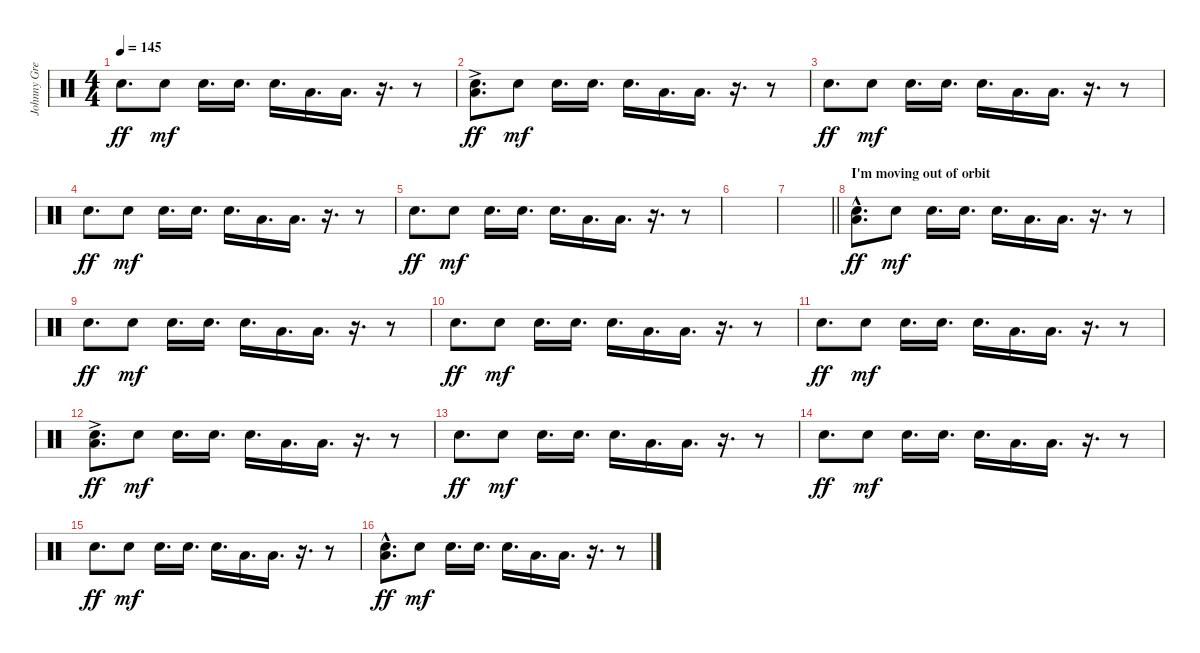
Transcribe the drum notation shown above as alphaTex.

\track ("Johnny Greenwood" "Johnny Gre") {instrument percussion}
\staff {score}
\articulation defaults
\ts (4 4)
\tempo 145
\clef neutral
\ks c "Snare (hit) 2".8{d dy ff} "Snare (hit) 2".8{dy mf} "Snare (hit) 2".16{d} "Snare (hit) 2".16{d} "Snare (hit) 2".16{d} "Low Floor Tom (hit)".16{d} "Low Floor Tom (hit)".16{d}
r.16{d} r.8 |
("Snare (hit) 2" "Low Floor Tom (hit)"{ac}).8{d dy ff} "Snare (hit) 2".8{dy mf} "Snare (hit) 2".16{d} "Snare (hit) 2".16{d} "Snare (hit) 2".16{d} "Low Floor Tom (hit)".16{d} "Low Floor Tom (hit)".16{d} r.16{d} r.8 |
"Snare (hit) 2".8{d dy ff} "Snare (hit) 2".8{dy mf} "Snare (hit) 2".16{d} "Snare (hit) 2".16{d} "Snare (hit) 2".16{d} "Low Floor Tom (hit)".16{d} "Low Floor Tom (hit)".16{d} r.16{d} r.8 |
"Snare (hit) 2".8{d dy ff} "Snare (hit) 2".8{dy mf} "Snare (hit) 2".16{d} "Snare (hit) 2".16{d} "Snare (hit) 2".16{d} "Low Floor Tom (hit)".16{d} "Low Floor Tom (hit)".16{d} r.16{d} r.8 |
"Snare (hit) 2".8{d dy ff} "Snare (hit) 2".8{dy mf} "Snare (hit) 2".16{d} "Snare (hit) 2".16{d} "Snare (hit) 2".16{d} "Low Floor Tom (hit)".16{d} "Low Floor Tom (hit)".16{d} r.16{d} r.8 |
|
\barLineRight lightlight
|
\section ("" "I'm moving out of orbit")
("Snare (hit) 2" "Low Floor Tom (hit)"{hac}).8{d dy ff} "Snare (hit) 2".8{dy mf} "Snare (hit) 2".16{d} "Snare (hit) 2".16{d} "Snare (hit) 2".16{d} "Low Floor Tom (hit)".16{d} "Low Floor Tom (hit)".16{d} r.16{d} r.8 |
"Snare (hit) 2".8{d dy ff} "Snare (hit) 2".8{dy mf} "Snare (hit) 2".16{d} "Snare (hit) 2".16{d} "Snare (hit) 2".16{d} "Low Floor Tom (hit)".16{d} "Low Floor Tom (hit)".16{d} r.16{d} r.8 |
"Snare (hit) 2".8{d dy ff} "Snare (hit) 2".8{dy mf} "Snare (hit) 2".16{d} "Snare (hit) 2".16{d} "Snare (hit) 2".16{d} "Low Floor Tom (hit)".16{d} "Low Floor Tom (hit)".16{d} r.16{d} r.8 |
"Snare (hit) 2".8{d dy ff} "Snare (hit) 2".8{dy mf} "Snare (hit) 2".16{d} "Snare (hit) 2".16{d} "Snare (hit) 2".16{d} "Low Floor Tom (hit)".16{d} "Low Floor Tom (hit)".16{d} r.16{d} r.8 |
("Snare (hit) 2" "Low Floor Tom (hit)"{ac}).8{d dy ff} "Snare (hit) 2".8{dy mf} "Snare (hit) 2".16{d} "Snare (hit) 2".16{d} "Snare (hit) 2".16{d} "Low Floor Tom (hit)".16{d} "Low Floor Tom (hit)".16{d} r.16{d} r.8 |
"Snare (hit) 2".8{d dy ff} "Snare (hit) 2".8{dy mf} "Snare (hit) 2".16{d} "Snare (hit) 2".16{d} "Snare (hit) 2".16{d} "Low Floor Tom (hit)".16{d} "Low Floor Tom (hit)".16{d} r.16{d} r.8 |
"Snare (hit) 2".8{d dy ff} "Snare (hit) 2".8{dy mf} "Snare (hit) 2".16{d} "Snare (hit) 2".16{d} "Snare (hit) 2".16{d} "Low Floor Tom (hit)".16{d} "Low Floor Tom (hit)".16{d} r.16{d} r.8 |
"Snare (hit) 2".8{d dy ff} "Snare (hit) 2".8{dy mf} "Snare (hit) 2".16{d} "Snare (hit) 2".16{d} "Snare (hit) 2".16{d} "Low Floor Tom (hit)".16{d} "Low Floor Tom (hit)".16{d} r.16{d} r.8 |
("Snare (hit) 2" "Low Floor Tom (hit)"{hac}).8{d dy ff} "Snare (hit) 2".8{dy mf} "Snare (hit) 2".16{d} "Snare (hit) 2".16{d} "Snare (hit) 2".16{d} "Low Floor Tom (hit)".16{d} "Low Floor Tom (hit)".16{d} r.16{d} r.8
